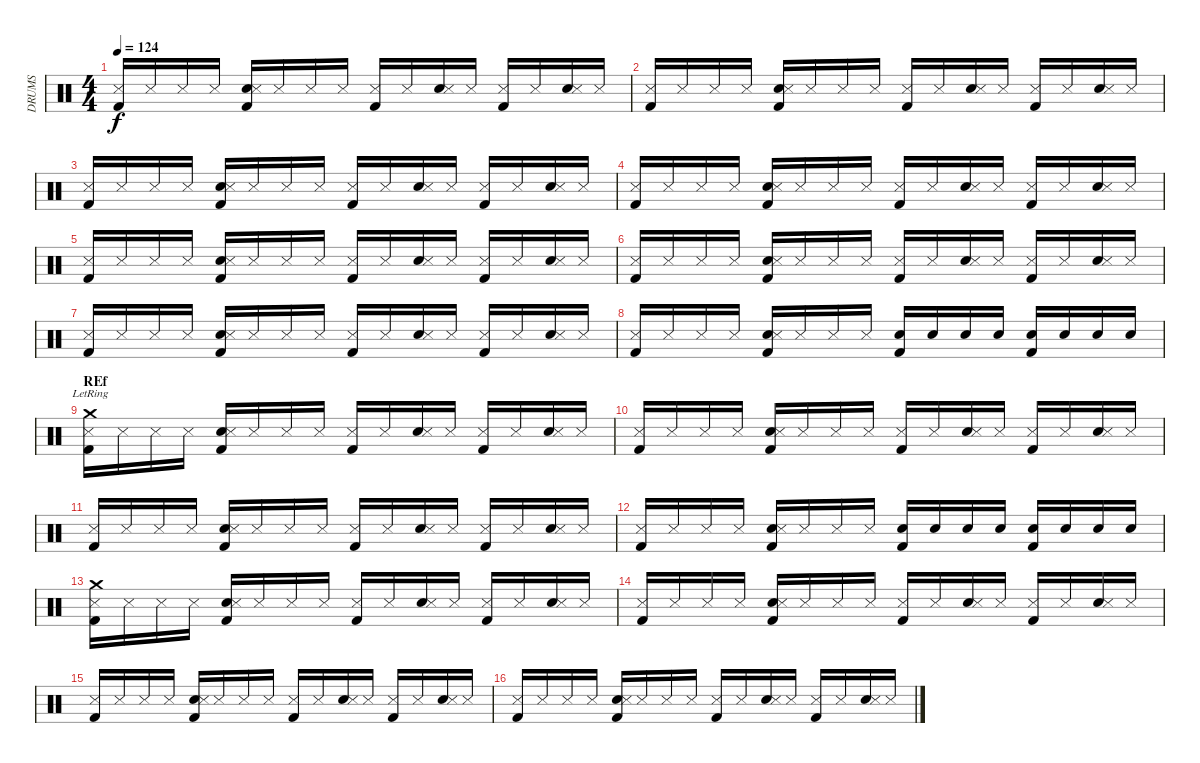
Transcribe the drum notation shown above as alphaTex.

\track ("DRUMS" "DRUMS") {instrument percussion}
\staff {score}
\articulation defaults
\ts (4 4)
\tempo 124
\clef neutral
\ks c
("Kick (hit) 2" "Snare (side stick) 3").16{dy f} "Snare (side stick) 3".16 "Snare (side stick) 3".16 "Snare (side stick) 3".16 ("Kick (hit) 2" "Snare (hit) 2" "Snare (side stick) 3").16 "Snare (side stick) 3".16 "Snare (side stick) 3".16 "Snare (side stick) 3".16 ("Kick (hit) 2" "Snare (side stick) 3").16 "Snare (side stick) 3".16 ("Snare (hit) 2" "Snare (side stick) 3").16 "Snare (side stick) 3".16 ("Kick (hit) 2" "Snare (side stick) 3").16 "Snare (side stick) 3".16 ("Snare (hit) 2" "Snare (side stick) 3").16 "Snare (side stick) 3".16 |
("Kick (hit) 2" "Snare (side stick) 3").16 "Snare (side stick) 3".16 "Snare (side stick) 3".16 "Snare (side stick) 3".16 ("Kick (hit) 2" "Snare (hit) 2" "Snare (side stick) 3").16 "Snare (side stick) 3".16 "Snare (side stick) 3".16 "Snare (side stick) 3".16 ("Kick (hit) 2" "Snare (side stick) 3").16 "Snare (side stick) 3".16 ("Snare (hit) 2" "Snare (side stick) 3").16 "Snare (side stick) 3".16 ("Kick (hit) 2" "Snare (side stick) 3").16 "Snare (side stick) 3".16 ("Snare (hit) 2" "Snare (side stick) 3").16 "Snare (side stick) 3".16 |
("Kick (hit) 2" "Snare (side stick) 3").16 "Snare (side stick) 3".16 "Snare (side stick) 3".16 "Snare (side stick) 3".16 ("Kick (hit) 2" "Snare (hit) 2" "Snare (side stick) 3").16 "Snare (side stick) 3".16 "Snare (side stick) 3".16 "Snare (side stick) 3".16 ("Kick (hit) 2" "Snare (side stick) 3").16 "Snare (side stick) 3".16 ("Snare (hit) 2" "Snare (side stick) 3").16 "Snare (side stick) 3".16 ("Kick (hit) 2" "Snare (side stick) 3").16 "Snare (side stick) 3".16 ("Snare (hit) 2" "Snare (side stick) 3").16 "Snare (side stick) 3".16 |
("Kick (hit) 2" "Snare (side stick) 3").16 "Snare (side stick) 3".16 "Snare (side stick) 3".16 "Snare (side stick) 3".16 ("Kick (hit) 2" "Snare (hit) 2" "Snare (side stick) 3").16 "Snare (side stick) 3".16 "Snare (side stick) 3".16 "Snare (side stick) 3".16 ("Kick (hit) 2" "Snare (side stick) 3").16 "Snare (side stick) 3".16 ("Snare (hit) 2" "Snare (side stick) 3").16 "Snare (side stick) 3".16 ("Kick (hit) 2" "Snare (side stick) 3").16 "Snare (side stick) 3".16 ("Snare (hit) 2" "Snare (side stick) 3").16 "Snare (side stick) 3".16 |
("Kick (hit) 2" "Snare (side stick) 3").16 "Snare (side stick) 3".16 "Snare (side stick) 3".16 "Snare (side stick) 3".16 ("Kick (hit) 2" "Snare (hit) 2" "Snare (side stick) 3").16 "Snare (side stick) 3".16 "Snare (side stick) 3".16 "Snare (side stick) 3".16 ("Kick (hit) 2" "Snare (side stick) 3").16 "Snare (side stick) 3".16 ("Snare (hit) 2" "Snare (side stick) 3").16 "Snare (side stick) 3".16 ("Kick (hit) 2" "Snare (side stick) 3").16 "Snare (side stick) 3".16 ("Snare (hit) 2" "Snare (side stick) 3").16 "Snare (side stick) 3".16 |
("Kick (hit) 2" "Snare (side stick) 3").16 "Snare (side stick) 3".16 "Snare (side stick) 3".16 "Snare (side stick) 3".16 ("Kick (hit) 2" "Snare (hit) 2" "Snare (side stick) 3").16 "Snare (side stick) 3".16 "Snare (side stick) 3".16 "Snare (side stick) 3".16 ("Kick (hit) 2" "Snare (side stick) 3").16 "Snare (side stick) 3".16 ("Snare (hit) 2" "Snare (side stick) 3").16 "Snare (side stick) 3".16 ("Kick (hit) 2" "Snare (side stick) 3").16 "Snare (side stick) 3".16 ("Snare (hit) 2" "Snare (side stick) 3").16 "Snare (side stick) 3".16 |
("Kick (hit) 2" "Snare (side stick) 3").16 "Snare (side stick) 3".16 "Snare (side stick) 3".16 "Snare (side stick) 3".16 ("Kick (hit) 2" "Snare (hit) 2" "Snare (side stick) 3").16 "Snare (side stick) 3".16 "Snare (side stick) 3".16 "Snare (side stick) 3".16 ("Kick (hit) 2" "Snare (side stick) 3").16 "Snare (side stick) 3".16 ("Snare (hit) 2" "Snare (side stick) 3").16 "Snare (side stick) 3".16 ("Kick (hit) 2" "Snare (side stick) 3").16 "Snare (side stick) 3".16 ("Snare (hit) 2" "Snare (side stick) 3").16 "Snare (side stick) 3".16 |
("Kick (hit) 2" "Snare (side stick) 3").16 "Snare (side stick) 3".16 "Snare (side stick) 3".16 "Snare (side stick) 3".16 ("Kick (hit) 2" "Snare (hit) 2" "Snare (side stick) 3").16 "Snare (side stick) 3".16 "Snare (side stick) 3".16 "Snare (side stick) 3".16 ("Kick (hit) 2" "Snare (hit) 2").16 "Snare (hit) 2".16 "Snare (hit) 2".16 "Snare (hit) 2".16 ("Kick (hit) 2" "Snare (hit) 2").16 "Snare (hit) 2".16 "Snare (hit) 2".16 "Snare (hit) 2".16 |
\section ("" "REf")
("Kick (hit) 2" "Snare (side stick) 3" "Crash medium (hit)"{lr}).16 "Snare (side stick) 3".16 "Snare (side stick) 3".16 "Snare (side stick) 3".16 ("Kick (hit) 2" "Snare (hit) 2" "Snare (side stick) 3").16 "Snare (side stick) 3".16 "Snare (side stick) 3".16 "Snare (side stick) 3".16 ("Kick (hit) 2" "Snare (side stick) 3").16 "Snare (side stick) 3".16 ("Snare (hit) 2" "Snare (side stick) 3").16 "Snare (side stick) 3".16 ("Kick (hit) 2" "Snare (side stick) 3").16 "Snare (side stick) 3".16 ("Snare (hit) 2" "Snare (side stick) 3").16 "Snare (side stick) 3".16 |
("Kick (hit) 2" "Snare (side stick) 3").16 "Snare (side stick) 3".16 "Snare (side stick) 3".16 "Snare (side stick) 3".16 ("Kick (hit) 2" "Snare (hit) 2" "Snare (side stick) 3").16 "Snare (side stick) 3".16 "Snare (side stick) 3".16 "Snare (side stick) 3".16 ("Kick (hit) 2" "Snare (side stick) 3").16 "Snare (side stick) 3".16 ("Snare (hit) 2" "Snare (side stick) 3").16 "Snare (side stick) 3".16 ("Kick (hit) 2" "Snare (side stick) 3").16 "Snare (side stick) 3".16 ("Snare (hit) 2" "Snare (side stick) 3").16 "Snare (side stick) 3".16 |
("Kick (hit) 2" "Snare (side stick) 3").16 "Snare (side stick) 3".16 "Snare (side stick) 3".16 "Snare (side stick) 3".16 ("Kick (hit) 2" "Snare (hit) 2" "Snare (side stick) 3").16 "Snare (side stick) 3".16 "Snare (side stick) 3".16 "Snare (side stick) 3".16 ("Kick (hit) 2" "Snare (side stick) 3").16 "Snare (side stick) 3".16 ("Snare (hit) 2" "Snare (side stick) 3").16 "Snare (side stick) 3".16 ("Kick (hit) 2" "Snare (side stick) 3").16 "Snare (side stick) 3".16 ("Snare (hit) 2" "Snare (side stick) 3").16 "Snare (side stick) 3".16 |
("Kick (hit) 2" "Snare (side stick) 3").16 "Snare (side stick) 3".16 "Snare (side stick) 3".16 "Snare (side stick) 3".16 ("Kick (hit) 2" "Snare (hit) 2" "Snare (side stick) 3").16 "Snare (side stick) 3".16 "Snare (side stick) 3".16 "Snare (side stick) 3".16 ("Kick (hit) 2" "Snare (hit) 2").16 "Snare (hit) 2".16 "Snare (hit) 2".16 "Snare (hit) 2".16 ("Kick (hit) 2" "Snare (hit) 2").16 "Snare (hit) 2".16 "Snare (hit) 2".16 "Snare (hit) 2".16 |
("Kick (hit) 2" "Snare (side stick) 3" "Crash medium (hit)").16 "Snare (side stick) 3".16 "Snare (side stick) 3".16 "Snare (side stick) 3".16 ("Kick (hit) 2" "Snare (hit) 2" "Snare (side stick) 3").16 "Snare (side stick) 3".16 "Snare (side stick) 3".16 "Snare (side stick) 3".16 ("Kick (hit) 2" "Snare (side stick) 3").16 "Snare (side stick) 3".16 ("Snare (hit) 2" "Snare (side stick) 3").16 "Snare (side stick) 3".16 ("Kick (hit) 2" "Snare (side stick) 3").16 "Snare (side stick) 3".16 ("Snare (hit) 2" "Snare (side stick) 3").16 "Snare (side stick) 3".16 |
("Kick (hit) 2" "Snare (side stick) 3").16 "Snare (side stick) 3".16 "Snare (side stick) 3".16 "Snare (side stick) 3".16 ("Kick (hit) 2" "Snare (hit) 2" "Snare (side stick) 3").16 "Snare (side stick) 3".16 "Snare (side stick) 3".16 "Snare (side stick) 3".16 ("Kick (hit) 2" "Snare (side stick) 3").16 "Snare (side stick) 3".16 ("Snare (hit) 2" "Snare (side stick) 3").16 "Snare (side stick) 3".16 ("Kick (hit) 2" "Snare (side stick) 3").16 "Snare (side stick) 3".16 ("Snare (hit) 2" "Snare (side stick) 3").16 "Snare (side stick) 3".16 |
("Kick (hit) 2" "Snare (side stick) 3").16 "Snare (side stick) 3".16 "Snare (side stick) 3".16 "Snare (side stick) 3".16 ("Kick (hit) 2" "Snare (hit) 2" "Snare (side stick) 3").16 "Snare (side stick) 3".16 "Snare (side stick) 3".16 "Snare (side stick) 3".16 ("Kick (hit) 2" "Snare (side stick) 3").16 "Snare (side stick) 3".16 ("Snare (hit) 2" "Snare (side stick) 3").16 "Snare (side stick) 3".16 ("Kick (hit) 2" "Snare (side stick) 3").16 "Snare (side stick) 3".16 ("Snare (hit) 2" "Snare (side stick) 3").16 "Snare (side stick) 3".16 |
("Kick (hit) 2" "Snare (side stick) 3").16 "Snare (side stick) 3".16 "Snare (side stick) 3".16 "Snare (side stick) 3".16 ("Kick (hit) 2" "Snare (hit) 2" "Snare (side stick) 3").16 "Snare (side stick) 3".16 "Snare (side stick) 3".16 "Snare (side stick) 3".16 ("Kick (hit) 2" "Snare (side stick) 3").16 "Snare (side stick) 3".16 ("Snare (hit) 2" "Snare (side stick) 3").16 "Snare (side stick) 3".16 ("Kick (hit) 2" "Snare (side stick) 3").16 "Snare (side stick) 3".16 ("Snare (hit) 2" "Snare (side stick) 3").16 "Snare (side stick) 3".16
